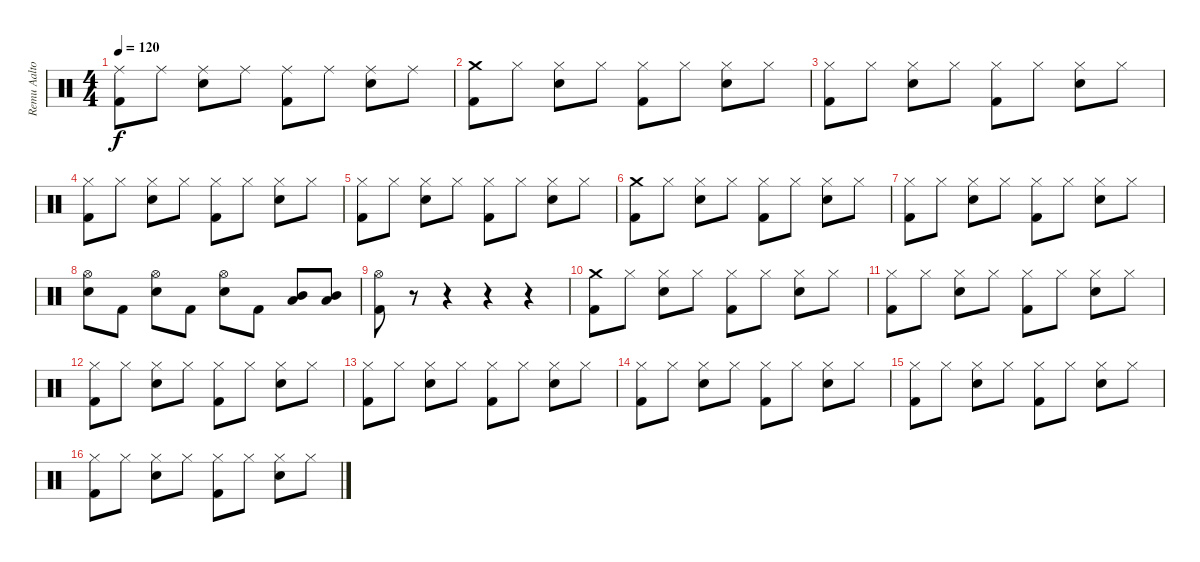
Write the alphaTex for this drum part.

\track ("Remu Aaltonen" "Remu Aalto") {instrument percussion}
\staff {score}
\articulation defaults
\ts (4 4)
\tempo 120
\clef neutral
\ks c
("Ride (middle)" "Kick (hit) 2").8{dy f} "Ride (middle)".8 ("Ride (middle)" "Snare (hit) 2").8 "Ride (middle)".8 ("Ride (middle)" "Kick (hit) 2").8 "Ride (middle)".8 ("Ride (middle)" "Snare (hit) 2").8 "Ride (middle)".8 |
("Crash medium (hit)" "Kick (hit) 2").8 "Hi-Hat (closed)".8 ("Hi-Hat (closed)" "Snare (hit) 2").8 "Hi-Hat (closed)".8 ("Hi-Hat (closed)" "Kick (hit) 2").8 "Hi-Hat (closed)".8 ("Hi-Hat (closed)" "Snare (hit) 2").8 "Hi-Hat (closed)".8 |
("Hi-Hat (closed)" "Kick (hit) 2").8 "Hi-Hat (closed)".8 ("Hi-Hat (closed)" "Snare (hit) 2").8 "Hi-Hat (closed)".8 ("Hi-Hat (closed)" "Kick (hit) 2").8 "Hi-Hat (closed)".8 ("Hi-Hat (closed)" "Snare (hit) 2").8 "Hi-Hat (closed)".8 |
("Hi-Hat (closed)" "Kick (hit) 2").8 "Hi-Hat (closed)".8 ("Hi-Hat (closed)" "Snare (hit) 2").8 "Hi-Hat (closed)".8 ("Hi-Hat (closed)" "Kick (hit) 2").8 "Hi-Hat (closed)".8 ("Hi-Hat (closed)" "Snare (hit) 2").8 "Hi-Hat (closed)".8 |
("Hi-Hat (closed)" "Kick (hit) 2").8 "Hi-Hat (closed)".8 ("Hi-Hat (closed)" "Snare (hit) 2").8 "Hi-Hat (closed)".8 ("Hi-Hat (closed)" "Kick (hit) 2").8 "Hi-Hat (closed)".8 ("Hi-Hat (closed)" "Snare (hit) 2").8 "Hi-Hat (closed)".8 |
("Crash medium (hit)" "Kick (hit) 2").8 "Hi-Hat (closed)".8 ("Hi-Hat (closed)" "Snare (hit) 2").8 "Hi-Hat (closed)".8 ("Hi-Hat (closed)" "Kick (hit) 2").8 "Hi-Hat (closed)".8 ("Hi-Hat (closed)" "Snare (hit) 2").8 "Hi-Hat (closed)".8 |
("Hi-Hat (closed)" "Kick (hit) 2").8 "Hi-Hat (closed)".8 ("Hi-Hat (closed)" "Snare (hit) 2").8 "Hi-Hat (closed)".8 ("Hi-Hat (closed)" "Kick (hit) 2").8 "Hi-Hat (closed)".8 ("Hi-Hat (closed)" "Snare (hit) 2").8 "Hi-Hat (closed)".8 |
("Hi-Hat (open)" "Snare (hit) 2").8 "Kick (hit) 2".8 ("Hi-Hat (open)" "Snare (hit) 2").8 "Kick (hit) 2".8 ("Hi-Hat (open)" "Snare (hit) 2").8 "Kick (hit) 2".8 ("Low Floor Tom (hit)" "Mid Tom (hit)").8 ("Low Floor Tom (hit)" "Mid Tom (hit)").8 |
("Hi-Hat (open)" "Kick (hit) 2").8 r.8 r.4 r.4 r.4 |
("Crash medium (hit)" "Kick (hit) 2").8 "Hi-Hat (closed)".8 ("Hi-Hat (closed)" "Snare (hit) 2").8 "Hi-Hat (closed)".8 ("Hi-Hat (closed)" "Kick (hit) 2").8 "Hi-Hat (closed)".8 ("Hi-Hat (closed)" "Snare (hit) 2").8 "Hi-Hat (closed)".8 |
("Hi-Hat (closed)" "Kick (hit) 2").8 "Hi-Hat (closed)".8 ("Hi-Hat (closed)" "Snare (hit) 2").8 "Hi-Hat (closed)".8 ("Hi-Hat (closed)" "Kick (hit) 2").8 "Hi-Hat (closed)".8 ("Hi-Hat (closed)" "Snare (hit) 2").8 "Hi-Hat (closed)".8 |
("Hi-Hat (closed)" "Kick (hit) 2").8 "Hi-Hat (closed)".8 ("Hi-Hat (closed)" "Snare (hit) 2").8 "Hi-Hat (closed)".8 ("Hi-Hat (closed)" "Kick (hit) 2").8 "Hi-Hat (closed)".8 ("Hi-Hat (closed)" "Snare (hit) 2").8 "Hi-Hat (closed)".8 |
("Hi-Hat (closed)" "Kick (hit) 2").8 "Hi-Hat (closed)".8 ("Hi-Hat (closed)" "Snare (hit) 2").8 "Hi-Hat (closed)".8 ("Hi-Hat (closed)" "Kick (hit) 2").8 "Hi-Hat (closed)".8 ("Hi-Hat (closed)" "Snare (hit) 2").8 "Hi-Hat (closed)".8 |
("Hi-Hat (closed)" "Kick (hit) 2").8 "Hi-Hat (closed)".8 ("Hi-Hat (closed)" "Snare (hit) 2").8 "Hi-Hat (closed)".8 ("Hi-Hat (closed)" "Kick (hit) 2").8 "Hi-Hat (closed)".8 ("Hi-Hat (closed)" "Snare (hit) 2").8 "Hi-Hat (closed)".8 |
("Hi-Hat (closed)" "Kick (hit) 2").8 "Hi-Hat (closed)".8 ("Hi-Hat (closed)" "Snare (hit) 2").8 "Hi-Hat (closed)".8 ("Hi-Hat (closed)" "Kick (hit) 2").8 "Hi-Hat (closed)".8 ("Hi-Hat (closed)" "Snare (hit) 2").8 "Hi-Hat (closed)".8 |
("Hi-Hat (closed)" "Kick (hit) 2").8 "Hi-Hat (closed)".8 ("Hi-Hat (closed)" "Snare (hit) 2").8 "Hi-Hat (closed)".8 ("Hi-Hat (closed)" "Kick (hit) 2").8 "Hi-Hat (closed)".8 ("Hi-Hat (closed)" "Snare (hit) 2").8 "Hi-Hat (closed)".8
